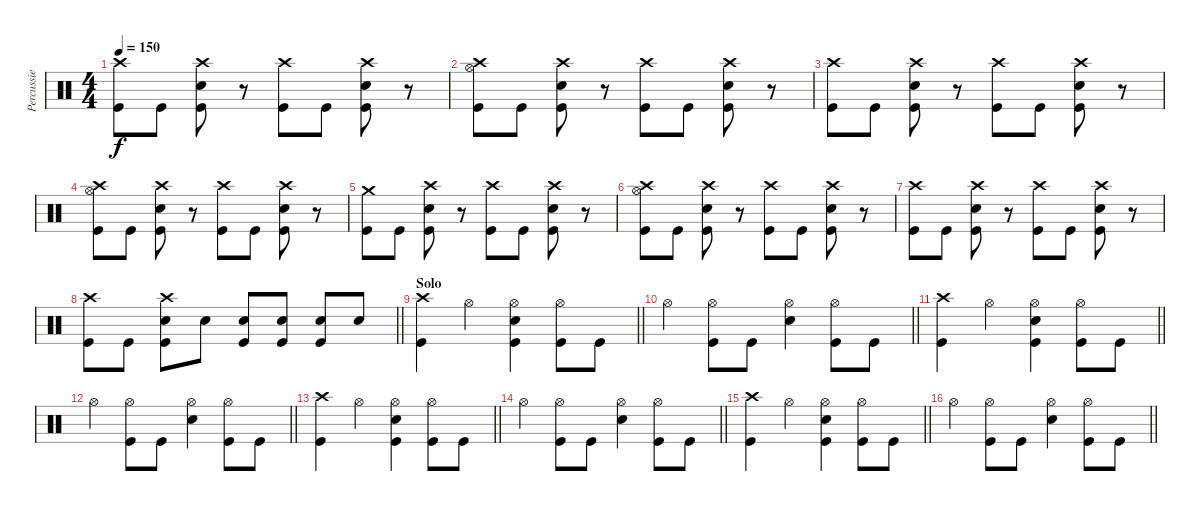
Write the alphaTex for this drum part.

\track ("Percussie" "Percussie") {instrument percussion}
\staff {score}
\articulation defaults
\ts (4 4)
\tempo 150
\clef neutral
\ks c
("Crash high (hit)" "Kick (hit)").8{dy f} "Kick (hit)".8 ("Crash high (hit)" "Snare (hit) 2" "Kick (hit)").8 r.8 ("Crash high (hit)" "Kick (hit)").8 "Kick (hit)".8 ("Crash high (hit)" "Snare (hit) 2" "Kick (hit)").8 r.8 |
("Crash high (hit)" "Hi-Hat (open)" "Kick (hit)").8 "Kick (hit)".8 ("Crash high (hit)" "Snare (hit) 2" "Kick (hit)").8 r.8 ("Crash high (hit)" "Kick (hit)").8 "Kick (hit)".8 ("Crash high (hit)" "Snare (hit) 2" "Kick (hit)").8 r.8 |
("Crash high (hit)" "Kick (hit)").8 "Kick (hit)".8 ("Crash high (hit)" "Snare (hit) 2" "Kick (hit)").8 r.8 ("Crash high (hit)" "Kick (hit)").8 "Kick (hit)".8 ("Crash high (hit)" "Snare (hit) 2" "Kick (hit)").8 r.8 |
("Crash high (hit)" "Hi-Hat (open)" "Kick (hit)").8 "Kick (hit)".8 ("Crash high (hit)" "Snare (hit) 2" "Kick (hit)").8 r.8 ("Crash high (hit)" "Kick (hit)").8 "Kick (hit)".8 ("Crash high (hit)" "Snare (hit) 2" "Kick (hit)").8 r.8 |
("Crash medium (hit)" "Kick (hit)").8 "Kick (hit)".8 ("Crash high (hit)" "Snare (hit) 2" "Kick (hit)").8 r.8 ("Crash high (hit)" "Kick (hit)").8 "Kick (hit)".8 ("Crash high (hit)" "Snare (hit) 2" "Kick (hit)").8 r.8 |
("Crash high (hit)" "Hi-Hat (open)" "Kick (hit)").8 "Kick (hit)".8 ("Crash high (hit)" "Snare (hit) 2" "Kick (hit)").8 r.8 ("Crash high (hit)" "Kick (hit)").8 "Kick (hit)".8 ("Crash high (hit)" "Snare (hit) 2" "Kick (hit)").8 r.8 |
("Crash high (hit)" "Kick (hit)").8 "Kick (hit)".8 ("Crash high (hit)" "Snare (hit) 2" "Kick (hit)").8 r.8 ("Crash high (hit)" "Kick (hit)").8 "Kick (hit)".8 ("Crash high (hit)" "Snare (hit) 2" "Kick (hit)").8 r.8 |
\barLineRight lightlight
("Crash high (hit)" "Kick (hit)").8 "Kick (hit)".8 ("Crash high (hit)" "Snare (hit) 2" "Kick (hit)").8 "Snare (hit) 2".8 ("Snare (hit) 2" "Kick (hit)").8 ("Snare (hit) 2" "Kick (hit)").8 ("Snare (hit) 2" "Kick (hit)").8 "Snare (hit) 2".8 |
\section ("" "Solo")
\barLineRight lightlight
("Crash high (hit)" "Kick (hit)").4 "Hi-Hat (open)".4 ("Hi-Hat (open)" "Snare (hit) 2" "Kick (hit)").4 ("Hi-Hat (open)" "Kick (hit)").8 "Kick (hit)".8 |
\barLineRight lightlight "Hi-Hat (open)".4
("Hi-Hat (open)" "Kick (hit)").8 "Kick (hit)".8 ("Hi-Hat (open)" "Snare (hit) 2").4 ("Hi-Hat (open)" "Kick (hit)").8 "Kick (hit)".8 |
\barLineRight lightlight
("Crash high (hit)" "Kick (hit)").4 "Hi-Hat (open)".4 ("Hi-Hat (open)" "Snare (hit) 2" "Kick (hit)").4 ("Hi-Hat (open)" "Kick (hit)").8 "Kick (hit)".8 |
\barLineRight lightlight "Hi-Hat (open)".4
("Hi-Hat (open)" "Kick (hit)").8 "Kick (hit)".8 ("Hi-Hat (open)" "Snare (hit) 2").4 ("Hi-Hat (open)" "Kick (hit)").8 "Kick (hit)".8 |
\barLineRight lightlight
("Crash high (hit)" "Kick (hit)").4 "Hi-Hat (open)".4 ("Hi-Hat (open)" "Snare (hit) 2" "Kick (hit)").4 ("Hi-Hat (open)" "Kick (hit)").8 "Kick (hit)".8 |
\barLineRight lightlight "Hi-Hat (open)".4
("Hi-Hat (open)" "Kick (hit)").8 "Kick (hit)".8 ("Hi-Hat (open)" "Snare (hit) 2").4 ("Hi-Hat (open)" "Kick (hit)").8 "Kick (hit)".8 |
\barLineRight lightlight
("Crash high (hit)" "Kick (hit)").4 "Hi-Hat (open)".4 ("Hi-Hat (open)" "Snare (hit) 2" "Kick (hit)").4 ("Hi-Hat (open)" "Kick (hit)").8 "Kick (hit)".8 |
\barLineRight lightlight "Hi-Hat (open)".4
("Hi-Hat (open)" "Kick (hit)").8 "Kick (hit)".8 ("Hi-Hat (open)" "Snare (hit) 2").4 ("Hi-Hat (open)" "Kick (hit)").8 "Kick (hit)".8
